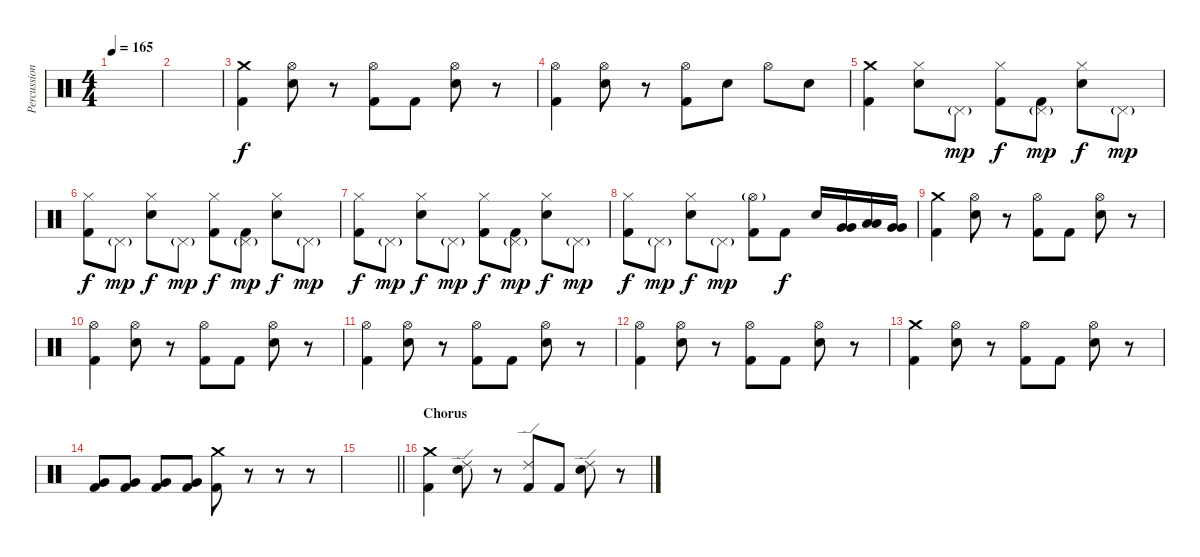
\track ("Percussion" "Percussion") {instrument percussion}
\staff {score}
\articulation defaults
\ts (4 4)
\tempo 165
\clef neutral
\ks c
|
|
("Crash medium (hit)" "Kick (hit) 2").4 ("Hi-Hat (open)" "Electric Snare (hit)").8 r.8 ("Hi-Hat (open)" "Kick (hit) 2").8 "Kick (hit) 2".8 ("Hi-Hat (open)" "Electric Snare (hit)").8 r.8 |
("Hi-Hat (open)" "Kick (hit) 2").4 ("Hi-Hat (open)" "Electric Snare (hit)").8 r.8 ("Hi-Hat (open)" "Kick (hit) 2").8 "Electric Snare (hit)".8 "Hi-Hat (open)".8 "Electric Snare (hit)".8 |
("Crash medium (hit)" "Kick (hit) 2").4 ("Hi-Hat (closed)" "Electric Snare (hit)").8 "Pedal Hi-Hat (hit)"{g}.8{dy mp} ("Hi-Hat (closed)" "Kick (hit) 2").8{dy f} ("Pedal Hi-Hat (hit)"{g} "Kick (hit) 2").8{dy mp} ("Hi-Hat (closed)" "Electric Snare (hit)").8{dy f} "Pedal Hi-Hat (hit)"{g}.8{dy mp} |
("Hi-Hat (closed)" "Kick (hit) 2").8{dy f} "Pedal Hi-Hat (hit)"{g}.8{dy mp} ("Hi-Hat (closed)" "Electric Snare (hit)").8{dy f} "Pedal Hi-Hat (hit)"{g}.8{dy mp} ("Hi-Hat (closed)" "Kick (hit) 2").8{dy f} ("Pedal Hi-Hat (hit)"{g} "Kick (hit) 2").8{dy mp} ("Hi-Hat (closed)" "Electric Snare (hit)").8{dy f} "Pedal Hi-Hat (hit)"{g}.8{dy mp} |
("Hi-Hat (closed)" "Kick (hit) 2").8{dy f} "Pedal Hi-Hat (hit)"{g}.8{dy mp} ("Hi-Hat (closed)" "Electric Snare (hit)").8{dy f} "Pedal Hi-Hat (hit)"{g}.8{dy mp} ("Hi-Hat (closed)" "Kick (hit) 2").8{dy f} ("Pedal Hi-Hat (hit)"{g} "Kick (hit) 2").8{dy mp} ("Hi-Hat (closed)" "Electric Snare (hit)").8{dy f} "Pedal Hi-Hat (hit)"{g}.8{dy mp} |
("Hi-Hat (closed)" "Kick (hit) 2").8{dy f} "Pedal Hi-Hat (hit)"{g}.8{dy mp} ("Hi-Hat (closed)" "Electric Snare (hit)").8{dy f} "Pedal Hi-Hat (hit)"{g}.8{dy mp} ("Hi-Hat (open)"{g} "Kick (hit) 2").8 "Kick (hit) 2".8{dy f} "Electric Snare (hit)".16 ("Very Low Tom (hit)" "Very Low Tom (hit)").16 ("Low Tom (hit)" "Low Tom (hit)").16 ("Very Low Tom (hit)" "Very Low Tom (hit)").16 |
("Crash medium (hit)" "Kick (hit) 2").4 ("Hi-Hat (open)" "Electric Snare (hit)").8 r.8 ("Hi-Hat (open)" "Kick (hit) 2").8 "Kick (hit) 2".8 ("Hi-Hat (open)" "Electric Snare (hit)").8 r.8 |
("Hi-Hat (open)" "Kick (hit) 2").4 ("Hi-Hat (open)" "Electric Snare (hit)").8 r.8 ("Hi-Hat (open)" "Kick (hit) 2").8 "Kick (hit) 2".8 ("Hi-Hat (open)" "Electric Snare (hit)").8 r.8 |
("Hi-Hat (open)" "Kick (hit) 2").4 ("Hi-Hat (open)" "Electric Snare (hit)").8 r.8 ("Hi-Hat (open)" "Kick (hit) 2").8 "Kick (hit) 2".8 ("Hi-Hat (open)" "Electric Snare (hit)").8 r.8 |
("Hi-Hat (open)" "Kick (hit) 2").4 ("Hi-Hat (open)" "Electric Snare (hit)").8 r.8 ("Hi-Hat (open)" "Kick (hit) 2").8 "Kick (hit) 2".8 ("Hi-Hat (open)" "Electric Snare (hit)").8 r.8 |
("Crash medium (hit)" "Kick (hit) 2").4 ("Hi-Hat (open)" "Electric Snare (hit)").8 r.8 ("Hi-Hat (open)" "Kick (hit) 2").8 "Kick (hit) 2".8 ("Hi-Hat (open)" "Electric Snare (hit)").8 r.8 |
("Very Low Tom (hit)" "Kick (hit) 2").8 ("Very Low Tom (hit)" "Kick (hit) 2").8 ("Very Low Tom (hit)" "Kick (hit) 2").8 ("Very Low Tom (hit)" "Kick (hit) 2").8 ("Kick (hit) 2" "Crash medium (hit)").8 r.8 r.8 r.8 |
\barLineRight lightlight
|
\section ("" "Chorus")
("Crash medium (hit)" "Kick (hit) 2").4 ("Ride (edge) 2" "Electric Snare (hit)").8 r.8 ("Ride (edge) 2" "Kick (hit) 2").8 "Kick (hit) 2".8 ("Ride (edge) 2" "Electric Snare (hit)").8 r.8
